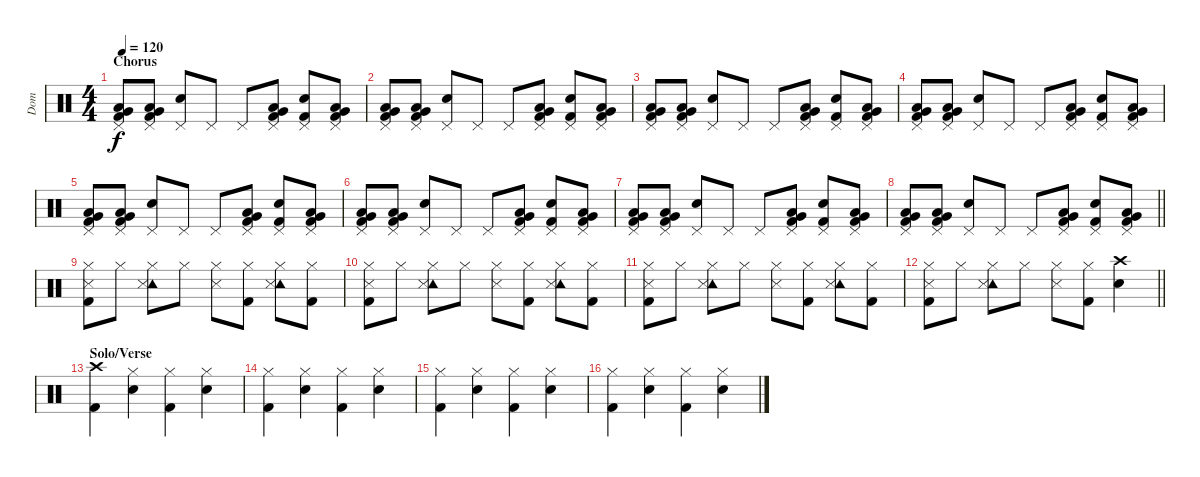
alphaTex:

\track ("Dom" "Dom") {instrument percussion}
\staff {score}
\articulation defaults
\ts (4 4)
\section ("" "Chorus")
\tempo 120
\clef neutral
\ks c
("Pedal Hi-Hat (hit)" "Very Low Tom (hit)" "Low Floor Tom (hit)" "Kick (hit) 2").8{dy f} ("Pedal Hi-Hat (hit)" "Very Low Tom (hit)" "Low Floor Tom (hit)" "Kick (hit) 2").8 ("Pedal Hi-Hat (hit)" "Electric Snare (hit)").8 "Pedal Hi-Hat (hit)".8 "Pedal Hi-Hat (hit)".8 ("Pedal Hi-Hat (hit)" "Very Low Tom (hit)" "Low Floor Tom (hit)" "Kick (hit) 2").8 ("Pedal Hi-Hat (hit)" "Electric Snare (hit)" "Kick (hit) 2").8 ("Pedal Hi-Hat (hit)" "Very Low Tom (hit)" "Low Floor Tom (hit)" "Kick (hit) 2").8 |
("Pedal Hi-Hat (hit)" "Very Low Tom (hit)" "Low Floor Tom (hit)" "Kick (hit) 2").8 ("Pedal Hi-Hat (hit)" "Very Low Tom (hit)" "Low Floor Tom (hit)" "Kick (hit) 2").8 ("Pedal Hi-Hat (hit)" "Electric Snare (hit)").8 "Pedal Hi-Hat (hit)".8 "Pedal Hi-Hat (hit)".8 ("Pedal Hi-Hat (hit)" "Very Low Tom (hit)" "Low Floor Tom (hit)" "Kick (hit) 2").8 ("Pedal Hi-Hat (hit)" "Electric Snare (hit)" "Kick (hit) 2").8 ("Pedal Hi-Hat (hit)" "Very Low Tom (hit)" "Low Floor Tom (hit)" "Kick (hit) 2").8 |
("Pedal Hi-Hat (hit)" "Very Low Tom (hit)" "Low Floor Tom (hit)" "Kick (hit) 2").8 ("Pedal Hi-Hat (hit)" "Very Low Tom (hit)" "Low Floor Tom (hit)" "Kick (hit) 2").8 ("Pedal Hi-Hat (hit)" "Electric Snare (hit)").8 "Pedal Hi-Hat (hit)".8 "Pedal Hi-Hat (hit)".8 ("Pedal Hi-Hat (hit)" "Very Low Tom (hit)" "Low Floor Tom (hit)" "Kick (hit) 2").8 ("Pedal Hi-Hat (hit)" "Electric Snare (hit)" "Kick (hit) 2").8 ("Pedal Hi-Hat (hit)" "Very Low Tom (hit)" "Low Floor Tom (hit)" "Kick (hit) 2").8 |
("Pedal Hi-Hat (hit)" "Very Low Tom (hit)" "Low Floor Tom (hit)" "Kick (hit) 2").8 ("Pedal Hi-Hat (hit)" "Very Low Tom (hit)" "Low Floor Tom (hit)" "Kick (hit) 2").8 ("Pedal Hi-Hat (hit)" "Electric Snare (hit)").8 "Pedal Hi-Hat (hit)".8 "Pedal Hi-Hat (hit)".8 ("Pedal Hi-Hat (hit)" "Very Low Tom (hit)" "Low Floor Tom (hit)" "Kick (hit) 2").8 ("Pedal Hi-Hat (hit)" "Electric Snare (hit)" "Kick (hit) 2").8 ("Pedal Hi-Hat (hit)" "Very Low Tom (hit)" "Low Floor Tom (hit)" "Kick (hit) 2").8 |
("Pedal Hi-Hat (hit)" "Very Low Tom (hit)" "Low Floor Tom (hit)" "Kick (hit) 2").8 ("Pedal Hi-Hat (hit)" "Very Low Tom (hit)" "Low Floor Tom (hit)" "Kick (hit) 2").8 ("Pedal Hi-Hat (hit)" "Electric Snare (hit)").8 "Pedal Hi-Hat (hit)".8 "Pedal Hi-Hat (hit)".8 ("Pedal Hi-Hat (hit)" "Very Low Tom (hit)" "Low Floor Tom (hit)" "Kick (hit) 2").8 ("Pedal Hi-Hat (hit)" "Electric Snare (hit)" "Kick (hit) 2").8 ("Pedal Hi-Hat (hit)" "Very Low Tom (hit)" "Low Floor Tom (hit)" "Kick (hit) 2").8 |
("Pedal Hi-Hat (hit)" "Very Low Tom (hit)" "Low Floor Tom (hit)" "Kick (hit) 2").8 ("Pedal Hi-Hat (hit)" "Very Low Tom (hit)" "Low Floor Tom (hit)" "Kick (hit) 2").8 ("Pedal Hi-Hat (hit)" "Electric Snare (hit)").8 "Pedal Hi-Hat (hit)".8 "Pedal Hi-Hat (hit)".8 ("Pedal Hi-Hat (hit)" "Very Low Tom (hit)" "Low Floor Tom (hit)" "Kick (hit) 2").8 ("Pedal Hi-Hat (hit)" "Electric Snare (hit)" "Kick (hit) 2").8 ("Pedal Hi-Hat (hit)" "Very Low Tom (hit)" "Low Floor Tom (hit)" "Kick (hit) 2").8 |
("Pedal Hi-Hat (hit)" "Very Low Tom (hit)" "Low Floor Tom (hit)" "Kick (hit) 2").8 ("Pedal Hi-Hat (hit)" "Very Low Tom (hit)" "Low Floor Tom (hit)" "Kick (hit) 2").8 ("Pedal Hi-Hat (hit)" "Electric Snare (hit)").8 "Pedal Hi-Hat (hit)".8 "Pedal Hi-Hat (hit)".8 ("Pedal Hi-Hat (hit)" "Very Low Tom (hit)" "Low Floor Tom (hit)" "Kick (hit) 2").8 ("Pedal Hi-Hat (hit)" "Electric Snare (hit)" "Kick (hit) 2").8 ("Pedal Hi-Hat (hit)" "Very Low Tom (hit)" "Low Floor Tom (hit)" "Kick (hit) 2").8 |
\barLineRight lightlight
("Pedal Hi-Hat (hit)" "Very Low Tom (hit)" "Low Floor Tom (hit)" "Kick (hit) 2").8 ("Pedal Hi-Hat (hit)" "Very Low Tom (hit)" "Low Floor Tom (hit)" "Kick (hit) 2").8 ("Pedal Hi-Hat (hit)" "Electric Snare (hit)").8 "Pedal Hi-Hat (hit)".8 "Pedal Hi-Hat (hit)".8 ("Pedal Hi-Hat (hit)" "Very Low Tom (hit)" "Low Floor Tom (hit)" "Kick (hit) 2").8 ("Pedal Hi-Hat (hit)" "Electric Snare (hit)" "Kick (hit) 2").8 ("Pedal Hi-Hat (hit)" "Very Low Tom (hit)" "Low Floor Tom (hit)" "Kick (hit) 2").8 |
("Hi-Hat (closed)" "Snare (side stick) 3" "Kick (hit) 2").8 "Hi-Hat (closed)".8 ("Tambourine (hit)" "Hi-Hat (closed)" "Snare (side stick) 3").8 "Hi-Hat (closed)".8 ("Hi-Hat (closed)" "Snare (side stick) 3").8 ("Hi-Hat (closed)" "Kick (hit) 2").8 ("Tambourine (hit)" "Hi-Hat (closed)" "Snare (side stick) 3").8 ("Hi-Hat (closed)" "Kick (hit) 2").8 |
("Hi-Hat (closed)" "Snare (side stick) 3" "Kick (hit) 2").8 "Hi-Hat (closed)".8 ("Tambourine (hit)" "Hi-Hat (closed)" "Snare (side stick) 3").8 "Hi-Hat (closed)".8 ("Hi-Hat (closed)" "Snare (side stick) 3").8 ("Hi-Hat (closed)" "Kick (hit) 2").8 ("Tambourine (hit)" "Hi-Hat (closed)" "Snare (side stick) 3").8 ("Hi-Hat (closed)" "Kick (hit) 2").8 |
("Hi-Hat (closed)" "Snare (side stick) 3" "Kick (hit) 2").8 "Hi-Hat (closed)".8 ("Tambourine (hit)" "Hi-Hat (closed)" "Snare (side stick) 3").8 "Hi-Hat (closed)".8 ("Hi-Hat (closed)" "Snare (side stick) 3").8 ("Hi-Hat (closed)" "Kick (hit) 2").8 ("Tambourine (hit)" "Hi-Hat (closed)" "Snare (side stick) 3").8 ("Hi-Hat (closed)" "Kick (hit) 2").8 |
\barLineRight lightlight
("Hi-Hat (closed)" "Snare (side stick) 3" "Kick (hit) 2").8 "Hi-Hat (closed)".8 ("Tambourine (hit)" "Hi-Hat (closed)" "Snare (side stick) 3").8 "Hi-Hat (closed)".8 ("Hi-Hat (closed)" "Snare (side stick) 3").8 ("Hi-Hat (closed)" "Kick (hit) 2").8 ("Crash high (hit)" "Electric Snare (hit)").4 |
\section ("" "Solo/Verse")
("Crash high (hit)" "Kick (hit) 2").4 ("Hi-Hat (closed)" "Electric Snare (hit)").4 ("Hi-Hat (closed)" "Kick (hit) 2").4 ("Hi-Hat (closed)" "Electric Snare (hit)").4 |
("Hi-Hat (closed)" "Kick (hit) 2").4 ("Hi-Hat (closed)" "Electric Snare (hit)").4 ("Hi-Hat (closed)" "Kick (hit) 2").4 ("Hi-Hat (closed)" "Electric Snare (hit)").4 |
("Hi-Hat (closed)" "Kick (hit) 2").4 ("Hi-Hat (closed)" "Electric Snare (hit)").4 ("Hi-Hat (closed)" "Kick (hit) 2").4 ("Hi-Hat (closed)" "Electric Snare (hit)").4 |
("Hi-Hat (closed)" "Kick (hit) 2").4 ("Hi-Hat (closed)" "Electric Snare (hit)").4 ("Hi-Hat (closed)" "Kick (hit) 2").4 ("Hi-Hat (closed)" "Electric Snare (hit)").4
